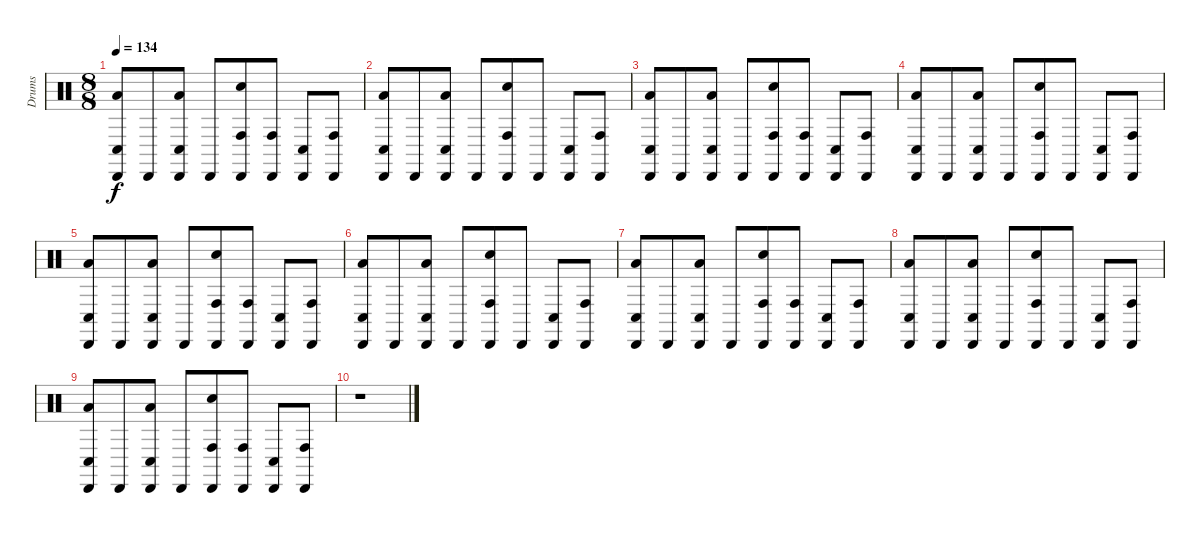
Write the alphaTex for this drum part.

\track ("Drums" "Drums") {instrument percussion}
\staff {score}
\articulation defaults
\ts (8 8)
\tempo 134
\clef neutral
\ks c
("Cabasa (hit)" "Low Tom (hit)" "Conga low (hit)").8{dy f} "Cabasa (hit)".8 ("Cabasa (hit)" "Low Tom (hit)" "Conga low (hit)").8 "Cabasa (hit)".8 ("Electric Snare (hit)" "Cabasa (hit)" "Conga high (hit)").8 ("Conga high (hit)" "Cabasa (hit)").8 ("Cabasa (hit)" "Conga low (hit)").8 ("Cabasa (hit)" "Conga high (hit)").8 |
("Cabasa (hit)" "Low Tom (hit)" "Conga low (hit)").8 "Cabasa (hit)".8 ("Cabasa (hit)" "Low Tom (hit)" "Conga low (hit)").8 "Cabasa (hit)".8 ("Electric Snare (hit)" "Cabasa (hit)" "Conga high (hit)").8 "Cabasa (hit)".8 ("Cabasa (hit)" "Conga low (hit)").8 ("Cabasa (hit)" "Conga high (hit)").8 |
("Cabasa (hit)" "Low Tom (hit)" "Conga low (hit)").8 "Cabasa (hit)".8 ("Cabasa (hit)" "Low Tom (hit)" "Conga low (hit)").8 "Cabasa (hit)".8 ("Electric Snare (hit)" "Cabasa (hit)" "Conga high (hit)").8 ("Conga high (hit)" "Cabasa (hit)").8 ("Cabasa (hit)" "Conga low (hit)").8 ("Cabasa (hit)" "Conga high (hit)").8 |
("Cabasa (hit)" "Low Tom (hit)" "Conga low (hit)").8 "Cabasa (hit)".8 ("Cabasa (hit)" "Low Tom (hit)" "Conga low (hit)").8 "Cabasa (hit)".8 ("Electric Snare (hit)" "Cabasa (hit)" "Conga high (hit)").8 "Cabasa (hit)".8 ("Cabasa (hit)" "Conga low (hit)").8 ("Cabasa (hit)" "Conga high (hit)").8 |
("Cabasa (hit)" "Low Tom (hit)" "Conga low (hit)").8 "Cabasa (hit)".8 ("Cabasa (hit)" "Low Tom (hit)" "Conga low (hit)").8 "Cabasa (hit)".8 ("Electric Snare (hit)" "Cabasa (hit)" "Conga high (hit)").8 ("Conga high (hit)" "Cabasa (hit)").8 ("Cabasa (hit)" "Conga low (hit)").8 ("Cabasa (hit)" "Conga high (hit)").8 |
("Cabasa (hit)" "Low Tom (hit)" "Conga low (hit)").8 "Cabasa (hit)".8 ("Cabasa (hit)" "Low Tom (hit)" "Conga low (hit)").8 "Cabasa (hit)".8 ("Electric Snare (hit)" "Cabasa (hit)" "Conga high (hit)").8 "Cabasa (hit)".8 ("Cabasa (hit)" "Conga low (hit)").8 ("Cabasa (hit)" "Conga high (hit)").8 |
("Cabasa (hit)" "Low Tom (hit)" "Conga low (hit)").8 "Cabasa (hit)".8 ("Cabasa (hit)" "Low Tom (hit)" "Conga low (hit)").8 "Cabasa (hit)".8 ("Electric Snare (hit)" "Cabasa (hit)" "Conga high (hit)").8 ("Conga high (hit)" "Cabasa (hit)").8 ("Cabasa (hit)" "Conga low (hit)").8 ("Cabasa (hit)" "Conga high (hit)").8 |
("Cabasa (hit)" "Low Tom (hit)" "Conga low (hit)").8 "Cabasa (hit)".8 ("Cabasa (hit)" "Low Tom (hit)" "Conga low (hit)").8 "Cabasa (hit)".8 ("Electric Snare (hit)" "Cabasa (hit)" "Conga high (hit)").8 "Cabasa (hit)".8 ("Cabasa (hit)" "Conga low (hit)").8 ("Cabasa (hit)" "Conga high (hit)").8 |
("Cabasa (hit)" "Low Tom (hit)" "Conga low (hit)").8 "Cabasa (hit)".8 ("Cabasa (hit)" "Low Tom (hit)" "Conga low (hit)").8 "Cabasa (hit)".8 ("Electric Snare (hit)" "Cabasa (hit)" "Conga high (hit)").8 ("Conga high (hit)" "Cabasa (hit)").8 ("Cabasa (hit)" "Conga low (hit)").8 ("Cabasa (hit)" "Conga high (hit)").8 |
r.1
